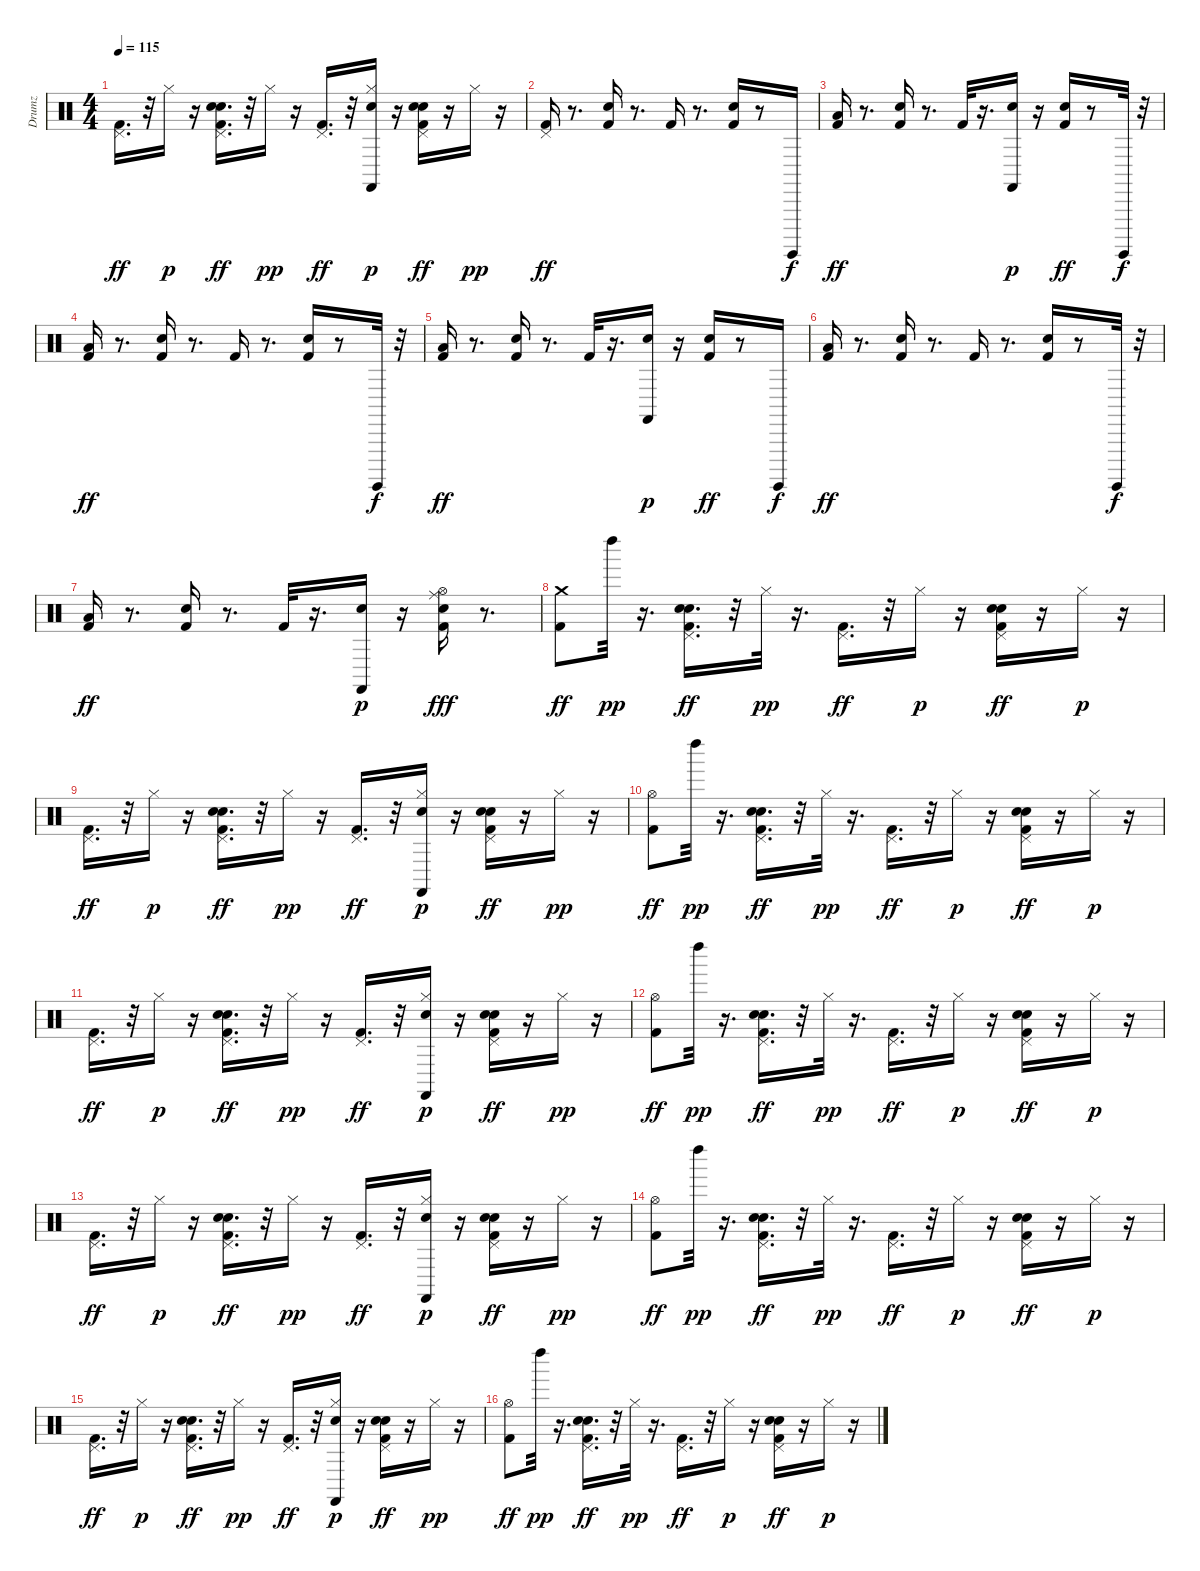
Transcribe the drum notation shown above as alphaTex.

\track ("Drumz" "Drumz") {instrument percussion}
\staff {score}
\articulation defaults
\ts (4 4)
\tempo 115
\clef neutral
\ks c
("Kick (hit) 2" "Pedal Hi-Hat (hit)").16{d dy ff} r.32 "Hi-Hat (closed)".16{dy p} r.16 ("Kick (hit) 2" "Pedal Hi-Hat (hit)" "Hand Clap (hit)" "Electric Snare (hit)").16{d dy ff} r.32 "Hi-Hat (closed)".16{dy pp} r.16 ("Pedal Hi-Hat (hit)" "Kick (hit) 2").16{d dy ff} r.32 ("Hi-Hat (closed)" "Castanets (hit)" "Hand Clap (hit)").16{dy p} r.16 ("Pedal Hi-Hat (hit)" "Kick (hit) 2" "Hand Clap (hit)" "Electric Snare (hit)").16{dy ff} r.16 "Hi-Hat (closed)".16{dy pp} r.16 |
("Kick (hit) 2" "Pedal Hi-Hat (hit)").16{dy ff} r.8{d} ("Kick (hit) 2" "Hand Clap (hit)").16 r.8{d} "Kick (hit) 2".16 r.8{d} ("Kick (hit) 2" "Hand Clap (hit)").16 r.8 "Surdo (hit)".16{dy f} |
("Kick (hit) 2" "Low Floor Tom (hit)").16{dy ff} r.8{d} ("Kick (hit) 2" "Hand Clap (hit)").16 r.8{d} "Kick (hit) 2".32 r.16{d} ("Castanets (hit)" "Hand Clap (hit)").16{dy p} r.16 ("Kick (hit) 2" "Hand Clap (hit)").16{dy ff} r.8 "Surdo (hit)".32{dy f} r.32 |
("Kick (hit) 2" "Low Floor Tom (hit)").16{dy ff} r.8{d} ("Kick (hit) 2" "Hand Clap (hit)").16 r.8{d} "Kick (hit) 2".16 r.8{d} ("Kick (hit) 2" "Hand Clap (hit)").16 r.8 "Surdo (hit)".32{dy f} r.32 |
("Kick (hit) 2" "Low Floor Tom (hit)").16{dy ff} r.8{d} ("Kick (hit) 2" "Hand Clap (hit)").16 r.8{d} "Kick (hit) 2".32 r.16{d} ("Castanets (hit)" "Hand Clap (hit)").16{dy p} r.16 ("Kick (hit) 2" "Hand Clap (hit)").16{dy ff} r.8 "Surdo (hit)".16{dy f} |
("Kick (hit) 2" "Low Floor Tom (hit)").16{dy ff} r.8{d} ("Kick (hit) 2" "Hand Clap (hit)").16 r.8{d} "Kick (hit) 2".16 r.8{d} ("Kick (hit) 2" "Hand Clap (hit)").16 r.8 "Surdo (hit)".32{dy f} r.32 |
("Kick (hit) 2" "Low Floor Tom (hit)").16{dy ff} r.8{d} ("Kick (hit) 2" "Hand Clap (hit)").16 r.8{d} "Kick (hit) 2".32 r.16{d} ("Castanets (hit)" "Hand Clap (hit)").16{dy p} r.16 ("Ride (middle)" "Kick (hit) 2" "Hand Clap (hit)" "Hi-Hat (open)").16{dy fff} r.8{d} |
("Crash medium (hit)" "Kick (hit) 2").8{dy ff} "Left Maraca (hit)".32{dy pp} r.16{d} ("Pedal Hi-Hat (hit)" "Kick (hit) 2" "Hand Clap (hit)" "Electric Snare (hit)").16{d dy ff} r.32 "Hi-Hat (closed)".32{dy pp} r.16{d} ("Pedal Hi-Hat (hit)" "Kick (hit) 2").16{d dy ff} r.32 "Hi-Hat (closed)".16{dy p} r.16 ("Pedal Hi-Hat (hit)" "Kick (hit) 2" "Electric Snare (hit)" "Hand Clap (hit)").16{dy ff} r.16 "Hi-Hat (closed)".16{dy p} r.16 |
("Kick (hit) 2" "Pedal Hi-Hat (hit)").16{d dy ff} r.32 "Hi-Hat (closed)".16{dy p} r.16 ("Kick (hit) 2" "Pedal Hi-Hat (hit)" "Hand Clap (hit)" "Electric Snare (hit)").16{d dy ff} r.32 "Hi-Hat (closed)".16{dy pp} r.16 ("Pedal Hi-Hat (hit)" "Kick (hit) 2").16{d dy ff} r.32 ("Hi-Hat (closed)" "Castanets (hit)" "Hand Clap (hit)").16{dy p} r.16 ("Pedal Hi-Hat (hit)" "Kick (hit) 2" "Hand Clap (hit)" "Electric Snare (hit)").16{dy ff} r.16 "Hi-Hat (closed)".16{dy pp} r.16 |
("Hi-Hat (open)" "Kick (hit) 2").8{dy ff} "Left Maraca (hit)".32{dy pp} r.16{d} ("Pedal Hi-Hat (hit)" "Kick (hit) 2" "Hand Clap (hit)" "Electric Snare (hit)").16{d dy ff} r.32 "Hi-Hat (closed)".32{dy pp} r.16{d} ("Pedal Hi-Hat (hit)" "Kick (hit) 2").16{d dy ff} r.32 "Hi-Hat (closed)".16{dy p} r.16 ("Pedal Hi-Hat (hit)" "Kick (hit) 2" "Electric Snare (hit)" "Hand Clap (hit)").16{dy ff} r.16 "Hi-Hat (closed)".16{dy p} r.16 |
("Kick (hit) 2" "Pedal Hi-Hat (hit)").16{d dy ff} r.32 "Hi-Hat (closed)".16{dy p} r.16 ("Kick (hit) 2" "Pedal Hi-Hat (hit)" "Hand Clap (hit)" "Electric Snare (hit)").16{d dy ff} r.32 "Hi-Hat (closed)".16{dy pp} r.16 ("Pedal Hi-Hat (hit)" "Kick (hit) 2").16{d dy ff} r.32 ("Hi-Hat (closed)" "Castanets (hit)" "Hand Clap (hit)").16{dy p} r.16 ("Pedal Hi-Hat (hit)" "Kick (hit) 2" "Hand Clap (hit)" "Electric Snare (hit)").16{dy ff} r.16 "Hi-Hat (closed)".16{dy pp} r.16 |
("Hi-Hat (open)" "Kick (hit) 2").8{dy ff} "Left Maraca (hit)".32{dy pp} r.16{d} ("Pedal Hi-Hat (hit)" "Kick (hit) 2" "Hand Clap (hit)" "Electric Snare (hit)").16{d dy ff} r.32 "Hi-Hat (closed)".32{dy pp} r.16{d} ("Pedal Hi-Hat (hit)" "Kick (hit) 2").16{d dy ff} r.32 "Hi-Hat (closed)".16{dy p} r.16 ("Pedal Hi-Hat (hit)" "Kick (hit) 2" "Electric Snare (hit)" "Hand Clap (hit)").16{dy ff} r.16 "Hi-Hat (closed)".16{dy p} r.16 |
("Kick (hit) 2" "Pedal Hi-Hat (hit)").16{d dy ff} r.32 "Hi-Hat (closed)".16{dy p} r.16 ("Kick (hit) 2" "Pedal Hi-Hat (hit)" "Hand Clap (hit)" "Electric Snare (hit)").16{d dy ff} r.32 "Hi-Hat (closed)".16{dy pp} r.16 ("Pedal Hi-Hat (hit)" "Kick (hit) 2").16{d dy ff} r.32 ("Hi-Hat (closed)" "Castanets (hit)" "Hand Clap (hit)").16{dy p} r.16 ("Pedal Hi-Hat (hit)" "Kick (hit) 2" "Hand Clap (hit)" "Electric Snare (hit)").16{dy ff} r.16 "Hi-Hat (closed)".16{dy pp} r.16 |
("Hi-Hat (open)" "Kick (hit) 2").8{dy ff} "Left Maraca (hit)".32{dy pp} r.16{d} ("Pedal Hi-Hat (hit)" "Kick (hit) 2" "Hand Clap (hit)" "Electric Snare (hit)").16{d dy ff} r.32 "Hi-Hat (closed)".32{dy pp} r.16{d} ("Pedal Hi-Hat (hit)" "Kick (hit) 2").16{d dy ff} r.32 "Hi-Hat (closed)".16{dy p} r.16 ("Pedal Hi-Hat (hit)" "Kick (hit) 2" "Electric Snare (hit)" "Hand Clap (hit)").16{dy ff} r.16 "Hi-Hat (closed)".16{dy p} r.16 |
("Kick (hit) 2" "Pedal Hi-Hat (hit)").16{d dy ff} r.32 "Hi-Hat (closed)".16{dy p} r.16 ("Kick (hit) 2" "Pedal Hi-Hat (hit)" "Hand Clap (hit)" "Electric Snare (hit)").16{d dy ff} r.32 "Hi-Hat (closed)".16{dy pp} r.16 ("Pedal Hi-Hat (hit)" "Kick (hit) 2").16{d dy ff} r.32 ("Hi-Hat (closed)" "Castanets (hit)" "Hand Clap (hit)").16{dy p} r.16 ("Pedal Hi-Hat (hit)" "Kick (hit) 2" "Hand Clap (hit)" "Electric Snare (hit)").16{dy ff} r.16 "Hi-Hat (closed)".16{dy pp} r.16 |
("Hi-Hat (open)" "Kick (hit) 2").8{dy ff} "Left Maraca (hit)".32{dy pp} r.16{d} ("Pedal Hi-Hat (hit)" "Kick (hit) 2" "Hand Clap (hit)" "Electric Snare (hit)").16{d dy ff} r.32 "Hi-Hat (closed)".32{dy pp} r.16{d} ("Pedal Hi-Hat (hit)" "Kick (hit) 2").16{d dy ff} r.32 "Hi-Hat (closed)".16{dy p} r.16 ("Pedal Hi-Hat (hit)" "Kick (hit) 2" "Electric Snare (hit)" "Hand Clap (hit)").16{dy ff} r.16 "Hi-Hat (closed)".16{dy p} r.16
